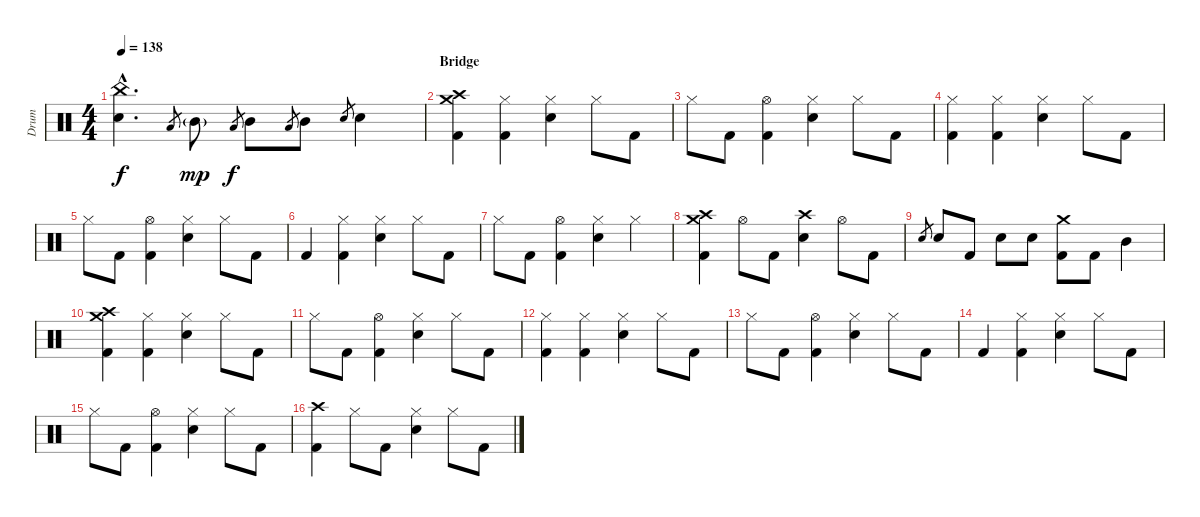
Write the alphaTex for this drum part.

\track ("Drum" "Drum") {instrument percussion}
\staff {score}
\articulation defaults
\ts (4 4)
\tempo 138
\clef neutral
\ks c
("Electric Snare (hit)"{hac} "China (hit)"{hac}).4{d dy f} "Low Tom (hit)".8{gr} "Mid Tom (hit)"{g}.8{dy mp} "Low Tom (hit)".8{gr dy f} "Mid Tom (hit)".8 "Low Tom (hit)".8{gr} "Mid Tom (hit)".8 "Electric Snare (hit)".8{gr} "Electric Snare (hit)".4 |
\section ("" "Bridge")
("Kick (hit) 2" "Crash high (hit)" "Crash medium (hit)").4 ("Hi-Hat (closed)" "Kick (hit) 2").4 ("Hi-Hat (closed)" "Electric Snare (hit)").4 "Hi-Hat (closed)".8 "Kick (hit) 2".8 |
"Hi-Hat (closed)".8 "Kick (hit) 2".8 ("Hi-Hat (open)" "Kick (hit) 2").4 ("Hi-Hat (closed)" "Electric Snare (hit)").4 "Hi-Hat (closed)".8 "Kick (hit) 2".8 |
("Hi-Hat (closed)" "Kick (hit) 2").4 ("Hi-Hat (closed)" "Kick (hit) 2").4 ("Hi-Hat (closed)" "Electric Snare (hit)").4 "Hi-Hat (closed)".8 "Kick (hit) 2".8 |
"Hi-Hat (closed)".8 "Kick (hit) 2".8 ("Hi-Hat (open)" "Kick (hit) 2").4 ("Hi-Hat (closed)" "Electric Snare (hit)").4 "Hi-Hat (closed)".8 "Kick (hit) 2".8 |
"Kick (hit) 2".4 ("Hi-Hat (closed)" "Kick (hit) 2").4 ("Hi-Hat (closed)" "Electric Snare (hit)").4 "Hi-Hat (closed)".8 "Kick (hit) 2".8 |
"Hi-Hat (closed)".8 "Kick (hit) 2".8 ("Hi-Hat (open)" "Kick (hit) 2").4 ("Hi-Hat (closed)" "Electric Snare (hit)").4 "Hi-Hat (closed)".4 |
("Kick (hit) 2" "Crash high (hit)" "Crash medium (hit)").4 "Hi-Hat (open)".8 "Kick (hit) 2".8 ("Electric Snare (hit)" "Crash high (hit)").4 "Hi-Hat (open)".8 "Kick (hit) 2".8 |
"Electric Snare (hit)".8{gr} "Electric Snare (hit)".8 "Kick (hit) 2".8 "Electric Snare (hit)".8 "Electric Snare (hit)".8 ("Kick (hit) 2" "Crash medium (hit)").8 "Kick (hit) 2".8 "Mid Tom (hit)".4 |
\section ("" "")
("Kick (hit) 2" "Crash high (hit)" "Crash medium (hit)").4 ("Hi-Hat (closed)" "Kick (hit) 2").4 ("Hi-Hat (closed)" "Electric Snare (hit)").4 "Hi-Hat (closed)".8 "Kick (hit) 2".8 |
"Hi-Hat (closed)".8 "Kick (hit) 2".8 ("Hi-Hat (open)" "Kick (hit) 2").4 ("Hi-Hat (closed)" "Electric Snare (hit)").4 "Hi-Hat (closed)".8 "Kick (hit) 2".8 |
("Hi-Hat (closed)" "Kick (hit) 2").4 ("Hi-Hat (closed)" "Kick (hit) 2").4 ("Hi-Hat (closed)" "Electric Snare (hit)").4 "Hi-Hat (closed)".8 "Kick (hit) 2".8 |
"Hi-Hat (closed)".8 "Kick (hit) 2".8 ("Hi-Hat (open)" "Kick (hit) 2").4 ("Hi-Hat (closed)" "Electric Snare (hit)").4 "Hi-Hat (closed)".8 "Kick (hit) 2".8 |
"Kick (hit) 2".4 ("Hi-Hat (closed)" "Kick (hit) 2").4 ("Hi-Hat (closed)" "Electric Snare (hit)").4 "Hi-Hat (closed)".8 "Kick (hit) 2".8 |
"Hi-Hat (closed)".8 "Kick (hit) 2".8 ("Hi-Hat (open)" "Kick (hit) 2").4 ("Hi-Hat (closed)" "Electric Snare (hit)").4 "Hi-Hat (closed)".8 "Kick (hit) 2".8 |
("Kick (hit) 2" "Crash high (hit)").4 "Hi-Hat (closed)".8 "Kick (hit) 2".8 ("Hi-Hat (closed)" "Electric Snare (hit)").4 "Hi-Hat (closed)".8 "Kick (hit) 2".8
